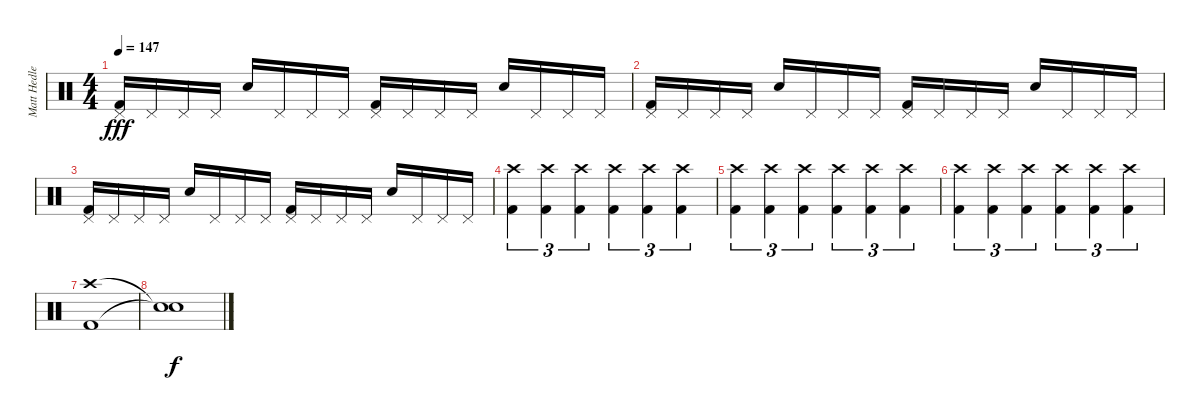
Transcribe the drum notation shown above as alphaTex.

\track ("Matt Hedlers" "Matt Hedle") {instrument percussion}
\staff {score}
\articulation defaults
\ts (4 4)
\tempo 147
\clef neutral
\ks c
("Pedal Hi-Hat (hit)" "Kick (hit) 2").16{dy fff} "Pedal Hi-Hat (hit)".16 "Pedal Hi-Hat (hit)".16 "Pedal Hi-Hat (hit)".16 "Snare (hit) 2".16 "Pedal Hi-Hat (hit)".16 "Pedal Hi-Hat (hit)".16 "Pedal Hi-Hat (hit)".16 ("Pedal Hi-Hat (hit)" "Kick (hit) 2").16 "Pedal Hi-Hat (hit)".16 "Pedal Hi-Hat (hit)".16 "Pedal Hi-Hat (hit)".16 "Snare (hit) 2".16 "Pedal Hi-Hat (hit)".16 "Pedal Hi-Hat (hit)".16 "Pedal Hi-Hat (hit)".16 |
("Pedal Hi-Hat (hit)" "Kick (hit) 2").16 "Pedal Hi-Hat (hit)".16 "Pedal Hi-Hat (hit)".16 "Pedal Hi-Hat (hit)".16 "Snare (hit) 2".16 "Pedal Hi-Hat (hit)".16 "Pedal Hi-Hat (hit)".16 "Pedal Hi-Hat (hit)".16 ("Pedal Hi-Hat (hit)" "Kick (hit) 2").16 "Pedal Hi-Hat (hit)".16 "Pedal Hi-Hat (hit)".16 "Pedal Hi-Hat (hit)".16 "Snare (hit) 2".16 "Pedal Hi-Hat (hit)".16 "Pedal Hi-Hat (hit)".16 "Pedal Hi-Hat (hit)".16 |
("Pedal Hi-Hat (hit)" "Kick (hit) 2").16 "Pedal Hi-Hat (hit)".16 "Pedal Hi-Hat (hit)".16 "Pedal Hi-Hat (hit)".16 "Snare (hit) 2".16 "Pedal Hi-Hat (hit)".16 "Pedal Hi-Hat (hit)".16 "Pedal Hi-Hat (hit)".16 ("Pedal Hi-Hat (hit)" "Kick (hit) 2").16 "Pedal Hi-Hat (hit)".16 "Pedal Hi-Hat (hit)".16 "Pedal Hi-Hat (hit)".16 "Snare (hit) 2".16 "Pedal Hi-Hat (hit)".16 "Pedal Hi-Hat (hit)".16 "Pedal Hi-Hat (hit)".16 |
("Crash high (hit)" "Kick (hit) 2").4{tu (3 2)} ("Crash high (hit)" "Kick (hit) 2").4{tu (3 2)} ("Crash high (hit)" "Kick (hit) 2").4{tu (3 2)} ("Crash high (hit)" "Kick (hit) 2").4{tu (3 2)} ("Crash high (hit)" "Kick (hit) 2").4{tu (3 2)} ("Crash high (hit)" "Kick (hit) 2").4{tu (3 2)} |
("Crash high (hit)" "Kick (hit) 2").4{tu (3 2)} ("Crash high (hit)" "Kick (hit) 2").4{tu (3 2)} ("Crash high (hit)" "Kick (hit) 2").4{tu (3 2)} ("Crash high (hit)" "Kick (hit) 2").4{tu (3 2)} ("Crash high (hit)" "Kick (hit) 2").4{tu (3 2)} ("Crash high (hit)" "Kick (hit) 2").4{tu (3 2)} |
("Crash high (hit)" "Kick (hit) 2").4{tu (3 2)} ("Crash high (hit)" "Kick (hit) 2").4{tu (3 2)} ("Crash high (hit)" "Kick (hit) 2").4{tu (3 2)} ("Crash high (hit)" "Kick (hit) 2").4{tu (3 2)} ("Crash high (hit)" "Kick (hit) 2").4{tu (3 2)} ("Crash high (hit)" "Kick (hit) 2").4{tu (3 2)} |
("Crash high (hit)" "Kick (hit) 2").1 |
("Snare (hit)"{t} "Snare (hit)"{t}).1{dy f}
